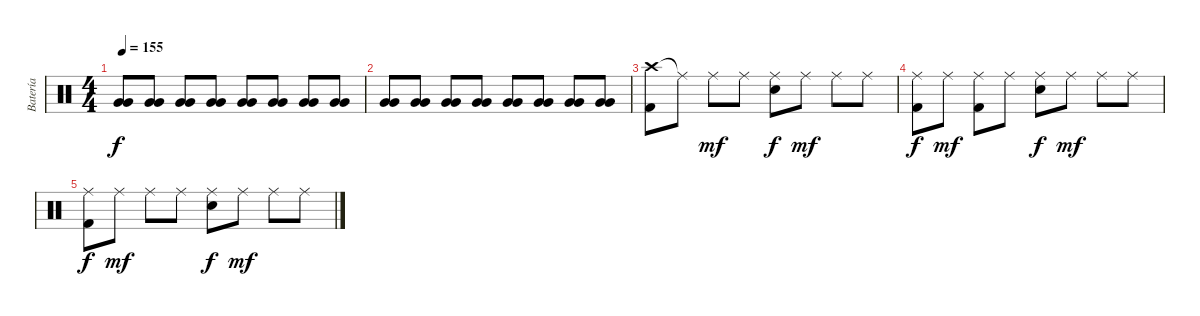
\track ("Batería" "Batería") {instrument percussion}
\staff {score}
\articulation defaults
\ts (4 4)
\tempo 155
\clef neutral
\ks c
("Very Low Tom (hit)" "Very Low Tom (hit)").8{dy f volume 0} ("Very Low Tom (hit)" "Very Low Tom (hit)").8 ("Very Low Tom (hit)" "Very Low Tom (hit)").8 ("Very Low Tom (hit)" "Very Low Tom (hit)").8 ("Very Low Tom (hit)" "Very Low Tom (hit)").8 ("Very Low Tom (hit)" "Very Low Tom (hit)").8 ("Very Low Tom (hit)" "Very Low Tom (hit)").8 ("Very Low Tom (hit)" "Very Low Tom (hit)").8 |
("Very Low Tom (hit)" "Very Low Tom (hit)").8 ("Very Low Tom (hit)" "Very Low Tom (hit)").8 ("Very Low Tom (hit)" "Very Low Tom (hit)").8 ("Very Low Tom (hit)" "Very Low Tom (hit)").8 ("Very Low Tom (hit)" "Very Low Tom (hit)").8 ("Very Low Tom (hit)" "Very Low Tom (hit)").8 ("Very Low Tom (hit)" "Very Low Tom (hit)").8 ("Very Low Tom (hit)" "Very Low Tom (hit)").8 |
("Crash high (hit)" "Kick (hit) 2").8 "Ride (middle)"{t}.8 "Ride (middle)".8{dy mf} "Ride (middle)".8 ("Ride (middle)" "Snare (hit) 2").8{dy f} "Ride (middle)".8{dy mf} "Ride (middle)".8 "Ride (middle)".8 |
("Ride (middle)" "Kick (hit) 2").8{dy f} "Ride (middle)".8{dy mf} ("Ride (middle)" "Kick (hit) 2").8 "Ride (middle)".8 ("Ride (middle)" "Snare (hit) 2").8{dy f} "Ride (middle)".8{dy mf} "Ride (middle)".8 "Ride (middle)".8 |
("Ride (middle)" "Kick (hit) 2").8{dy f} "Ride (middle)".8{dy mf} "Ride (middle)".8 "Ride (middle)".8 ("Ride (middle)" "Snare (hit) 2").8{dy f} "Ride (middle)".8{dy mf} "Ride (middle)".8 "Ride (middle)".8
